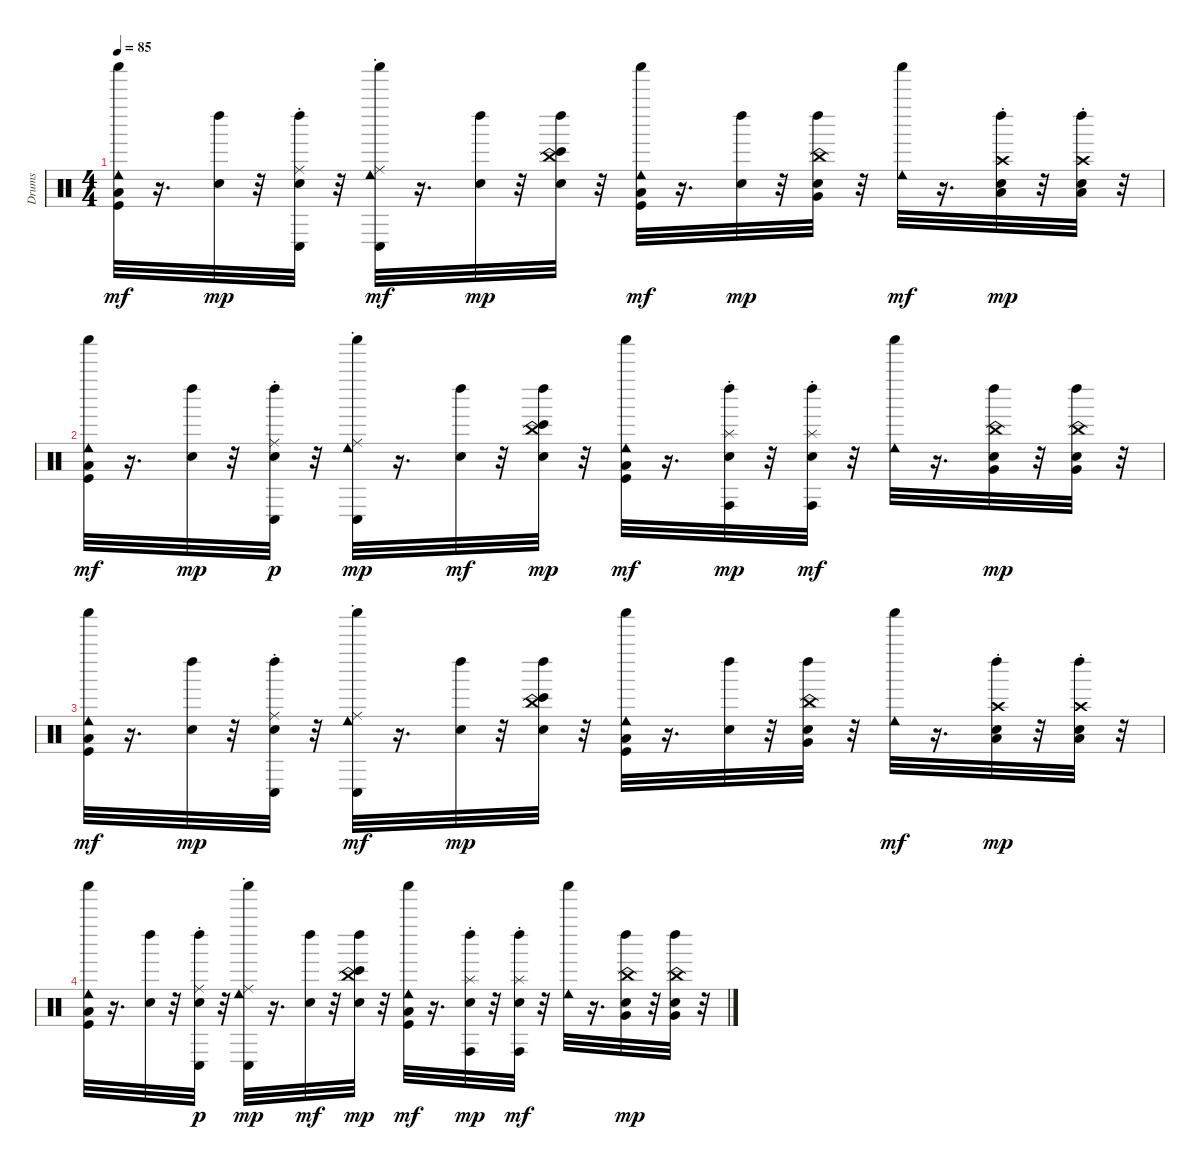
\track ("Drums" "Drums") {instrument percussion}
\staff {score}
\articulation defaults
\ts (4 4)
\tempo 85
\clef neutral
\ks c
("Low Floor Tom (hit)" "Kick (hit)" "Shaker (hit)" "Cowbell low (hit)").32{dy mf} r.16{d} ("Left Maraca (hit)" "Snare (hit)").32{dy mp} r.32 ("Conga low (hit)" "Left Maraca (hit)" "Ride (choke)" "Snare (hit)").32 r.32 ("Shaker (hit)" "Cowbell low (hit)" "Conga low (hit)" "Ride (choke)").32{dy mf} r.16{d} ("Left Maraca (hit)" "Snare (hit)").32{dy mp} r.32 ("Bongo High (hit)" "China (choke)" "Left Maraca (hit)" "Snare (hit)").32 r.32 ("Low Floor Tom (hit)" "Shaker (hit)" "Kick (hit)" "Cowbell low (hit)").32{dy mf} r.16{d} ("Left Maraca (hit)" "Snare (hit)").32{dy mp} r.32 ("China (choke)" "Very Low Tom (hit)" "Snare (hit)" "Left Maraca (hit)").32 r.32 ("Shaker (hit)" "Cowbell low (hit)").32{dy mf} r.16{d} ("Crash high (choke)" "Low Floor Tom (hit)" "Left Maraca (hit)" "Snare (hit)").32{dy mp} r.32 ("Snare (hit)" "Left Maraca (hit)" "Low Floor Tom (hit)" "Crash high (choke)").32 r.32 |
("Low Floor Tom (hit)" "Kick (hit)" "Shaker (hit)" "Cowbell low (hit)").32{dy mf} r.16{d} ("Left Maraca (hit)" "Snare (hit)").32{dy mp} r.32 ("Ride (choke)" "Conga low (hit)" "Snare (hit)" "Left Maraca (hit)").32{dy p} r.32 ("Shaker (hit)" "Conga low (hit)" "Cowbell low (hit)" "Ride (choke)").32{dy mp} r.16{d} ("Left Maraca (hit)" "Snare (hit)").32{dy mf} r.32 ("Bongo High (hit)" "China (choke)" "Left Maraca (hit)" "Snare (hit)").32{dy mp} r.32 ("Low Floor Tom (hit)" "Kick (hit)" "Shaker (hit)" "Cowbell low (hit)").32{dy mf} r.16{d} ("Conga high (hit)" "Splash (choke)" "Snare (hit)" "Left Maraca (hit)").32{dy mp} r.32 ("Left Maraca (hit)" "Snare (hit)" "Conga high (hit)" "Splash (choke)").32{dy mf} r.32 ("Shaker (hit)" "Cowbell low (hit)").32 r.16{d} ("China (choke)" "Very Low Tom (hit)" "Left Maraca (hit)" "Snare (hit)").32{dy mp} r.32 ("China (choke)" "Very Low Tom (hit)" "Left Maraca (hit)" "Snare (hit)").32 r.32 |
("Low Floor Tom (hit)" "Kick (hit)" "Shaker (hit)" "Cowbell low (hit)").32{dy mf} r.16{d} ("Left Maraca (hit)" "Snare (hit)").32{dy mp} r.32 ("Conga low (hit)" "Ride (choke)" "Left Maraca (hit)" "Snare (hit)").32 r.32 ("Shaker (hit)" "Cowbell low (hit)" "Conga low (hit)" "Ride (choke)").32{dy mf} r.16{d} ("Left Maraca (hit)" "Snare (hit)").32{dy mp} r.32 ("China (choke)" "Bongo High (hit)" "Left Maraca (hit)" "Snare (hit)").32 r.32 ("Low Floor Tom (hit)" "Kick (hit)" "Cowbell low (hit)" "Shaker (hit)").32 r.16{d} ("Left Maraca (hit)" "Snare (hit)").32 r.32 ("China (choke)" "Very Low Tom (hit)" "Left Maraca (hit)" "Snare (hit)").32 r.32 ("Shaker (hit)" "Cowbell low (hit)").32{dy mf} r.16{d} ("Low Floor Tom (hit)" "Crash high (choke)" "Snare (hit)" "Left Maraca (hit)").32{dy mp} r.32 ("Left Maraca (hit)" "Snare (hit)" "Crash high (choke)" "Low Floor Tom (hit)").32 r.32 |
("Low Floor Tom (hit)" "Kick (hit)" "Cowbell low (hit)" "Shaker (hit)").32 r.16{d} ("Left Maraca (hit)" "Snare (hit)").32 r.32 ("Conga low (hit)" "Ride (choke)" "Snare (hit)" "Left Maraca (hit)").32{dy p} r.32 ("Shaker (hit)" "Cowbell low (hit)" "Conga low (hit)" "Ride (choke)").32{dy mp} r.16{d} ("Left Maraca (hit)" "Snare (hit)").32{dy mf} r.32 ("Bongo High (hit)" "China (choke)" "Snare (hit)" "Left Maraca (hit)").32{dy mp} r.32 ("Low Floor Tom (hit)" "Kick (hit)" "Shaker (hit)" "Cowbell low (hit)").32{dy mf} r.16{d} ("Splash (choke)" "Conga high (hit)" "Left Maraca (hit)" "Snare (hit)").32{dy mp} r.32 ("Left Maraca (hit)" "Snare (hit)" "Conga high (hit)" "Splash (choke)").32{dy mf} r.32 ("Shaker (hit)" "Cowbell low (hit)").32 r.16{d} ("China (choke)" "Very Low Tom (hit)" "Left Maraca (hit)" "Snare (hit)").32{dy mp} r.32 ("China (choke)" "Very Low Tom (hit)" "Left Maraca (hit)" "Snare (hit)").32 r.32
